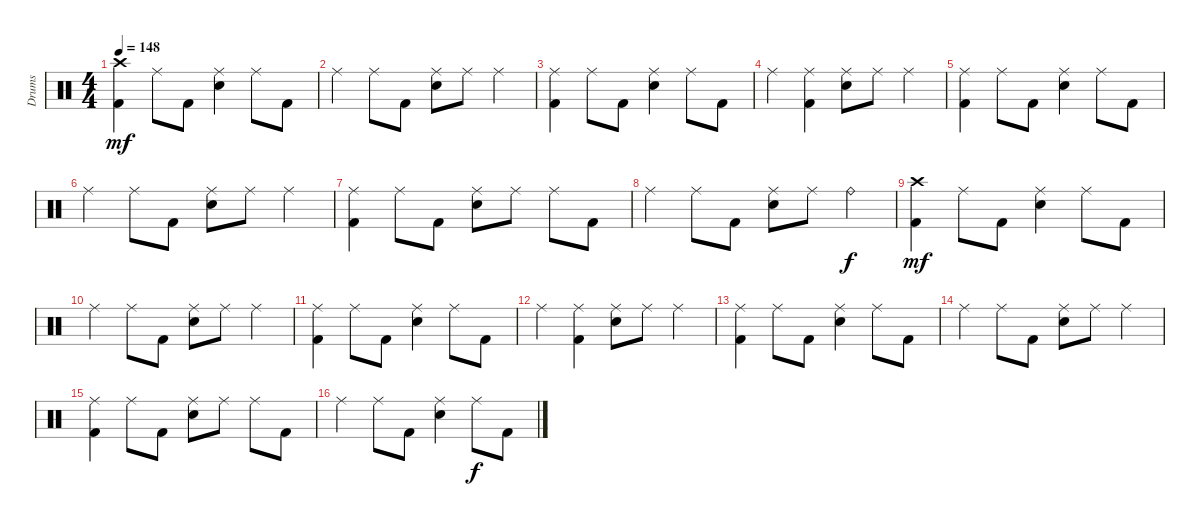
\track ("Drums" "Drums") {instrument percussion}
\staff {score}
\articulation defaults
\ts (4 4)
\tempo 148
\clef neutral
\ks c
("Crash high (hit)" "Kick (hit) 2").4{dy mf} "Ride (middle)".8 "Kick (hit) 2".8 ("Ride (middle)" "Electric Snare (hit)").4 "Ride (middle)".8 "Kick (hit) 2".8 |
"Ride (middle)".4 "Ride (middle)".8 "Kick (hit) 2".8 ("Ride (middle)" "Electric Snare (hit)").8 "Ride (middle)".8 "Ride (middle)".4 |
("Ride (middle)" "Kick (hit) 2").4 "Ride (middle)".8 "Kick (hit) 2".8 ("Ride (middle)" "Electric Snare (hit)").4 "Ride (middle)".8 "Kick (hit) 2".8 |
"Ride (middle)".4 ("Ride (middle)" "Kick (hit) 2").4 ("Ride (middle)" "Electric Snare (hit)").8 "Ride (middle)".8 "Ride (middle)".4 |
("Ride (middle)" "Kick (hit) 2").4 "Ride (middle)".8 "Kick (hit) 2".8 ("Ride (middle)" "Electric Snare (hit)").4 "Ride (middle)".8 "Kick (hit) 2".8 |
"Ride (middle)".4 "Ride (middle)".8 "Kick (hit) 2".8 ("Ride (middle)" "Electric Snare (hit)").8 "Ride (middle)".8 "Ride (middle)".4 |
("Ride (middle)" "Kick (hit) 2").4 "Ride (middle)".8 "Kick (hit) 2".8 ("Ride (middle)" "Electric Snare (hit)").8 "Ride (middle)".8 "Ride (middle)".8 "Kick (hit) 2".8 |
"Ride (middle)".4 "Ride (middle)".8 "Kick (hit) 2".8 ("Ride (middle)" "Electric Snare (hit)").8 "Ride (middle)".8 "Ride (bell)".4{dy f} |
("Crash high (hit)" "Kick (hit) 2").4{dy mf} "Ride (middle)".8 "Kick (hit) 2".8 ("Ride (middle)" "Electric Snare (hit)").4 "Ride (middle)".8 "Kick (hit) 2".8 |
"Ride (middle)".4 "Ride (middle)".8 "Kick (hit) 2".8 ("Ride (middle)" "Electric Snare (hit)").8 "Ride (middle)".8 "Ride (middle)".4 |
("Ride (middle)" "Kick (hit) 2").4 "Ride (middle)".8 "Kick (hit) 2".8 ("Ride (middle)" "Electric Snare (hit)").4 "Ride (middle)".8 "Kick (hit) 2".8 |
"Ride (middle)".4 ("Ride (middle)" "Kick (hit) 2").4 ("Ride (middle)" "Electric Snare (hit)").8 "Ride (middle)".8 "Ride (middle)".4 |
("Ride (middle)" "Kick (hit) 2").4 "Ride (middle)".8 "Kick (hit) 2".8 ("Ride (middle)" "Electric Snare (hit)").4 "Ride (middle)".8 "Kick (hit) 2".8 |
"Ride (middle)".4 "Ride (middle)".8 "Kick (hit) 2".8 ("Ride (middle)" "Electric Snare (hit)").8 "Ride (middle)".8 "Ride (middle)".4 |
("Ride (middle)" "Kick (hit) 2").4 "Ride (middle)".8 "Kick (hit) 2".8 ("Ride (middle)" "Electric Snare (hit)").8 "Ride (middle)".8 "Ride (middle)".8 "Kick (hit) 2".8 |
"Ride (middle)".4 "Ride (middle)".8 "Kick (hit) 2".8 ("Ride (middle)" "Electric Snare (hit)").4 "Ride (middle)".8{dy f} "Kick (hit) 2".8
